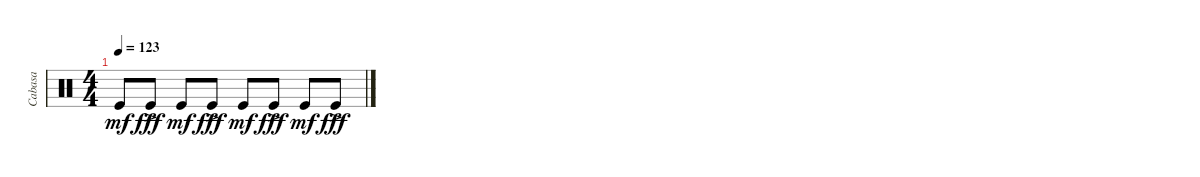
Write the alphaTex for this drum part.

\defaultSystemsLayout 4
\bracketExtendMode groupsimilarinstruments
\multiTrackTrackNamePolicy hidden
\firstSystemTrackNameMode fullname
\otherSystemsTrackNameMode fullname
\otherSystemsTrackNameOrientation horizontal
\defaultBarNumberDisplay FirstOfSystem
\track ("Cabasa" "Cabasa") {instrument percussion}
\staff {score}
\articulation defaults
\ts (4 4)
\tempo 123
\clef neutral
\ks c "Kick (hit)".8{dy mf} "Kick (hit)"{ac}.8{dy fff} "Kick (hit)".8{dy mf} "Kick (hit)"{ac}.8{dy fff} "Kick (hit)".8{dy mf} "Kick (hit)"{ac}.8{dy fff} "Kick (hit)".8{dy mf} "Kick (hit)"{ac}.8{dy fff}
